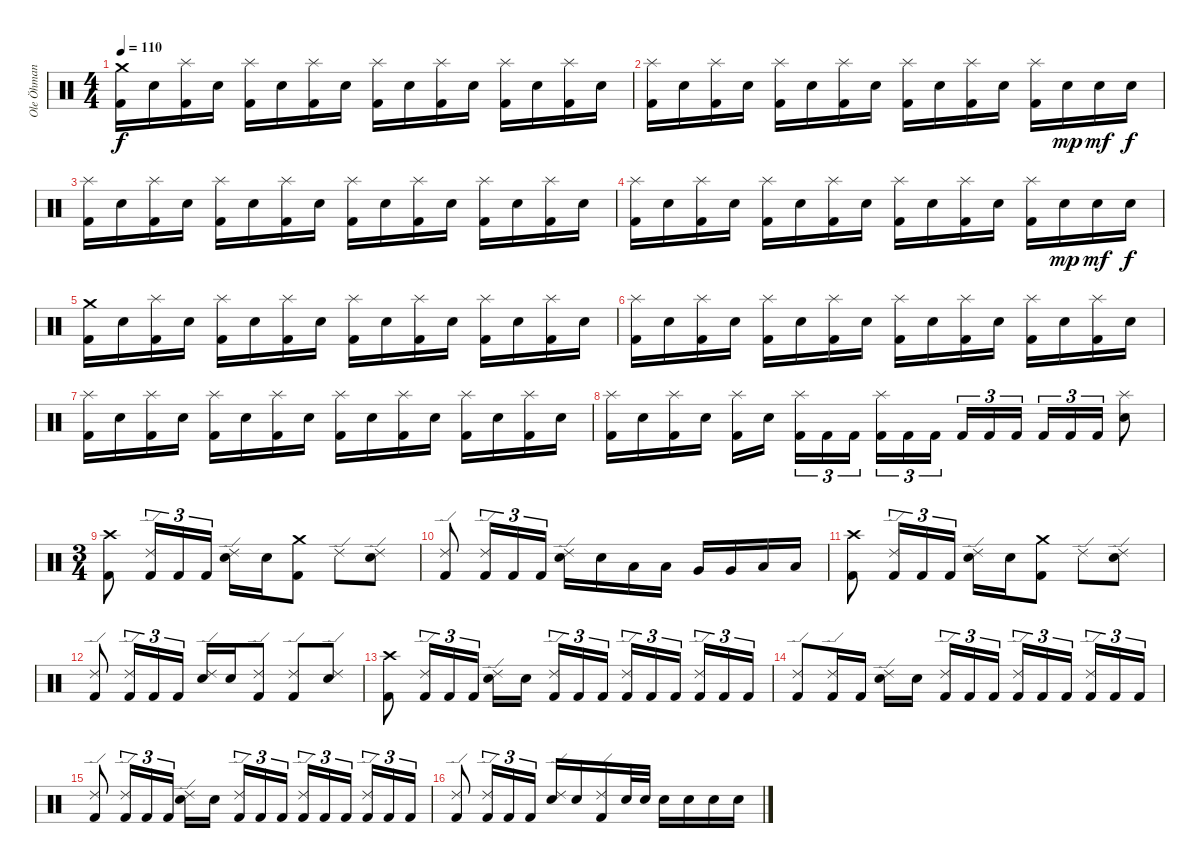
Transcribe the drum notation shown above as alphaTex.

\track ("Ole Öhman" "Ole Öhman") {instrument percussion}
\staff {score}
\articulation defaults
\ts (4 4)
\tempo 110
\clef neutral
\ks c
("Crash medium (hit)" "Kick (hit) 2").16{dy f} "Electric Snare (hit)".16 ("Splash (hit)" "Kick (hit) 2").16 "Electric Snare (hit)".16 ("Splash (hit)" "Kick (hit) 2").16 "Electric Snare (hit)".16 ("Splash (hit)" "Kick (hit) 2").16 "Electric Snare (hit)".16 ("Splash (hit)" "Kick (hit) 2").16 "Electric Snare (hit)".16 ("Splash (hit)" "Kick (hit) 2").16 "Electric Snare (hit)".16 ("Splash (hit)" "Kick (hit) 2").16 "Electric Snare (hit)".16 ("Splash (hit)" "Kick (hit) 2").16 "Electric Snare (hit)".16 |
("Splash (hit)" "Kick (hit) 2").16 "Electric Snare (hit)".16 ("Splash (hit)" "Kick (hit) 2").16 "Electric Snare (hit)".16 ("Splash (hit)" "Kick (hit) 2").16 "Electric Snare (hit)".16 ("Splash (hit)" "Kick (hit) 2").16 "Electric Snare (hit)".16 ("Splash (hit)" "Kick (hit) 2").16 "Electric Snare (hit)".16 ("Splash (hit)" "Kick (hit) 2").16 "Electric Snare (hit)".16 ("Splash (hit)" "Kick (hit) 2").16 "Electric Snare (hit)".16{dy mp} "Electric Snare (hit)".16{dy mf} "Electric Snare (hit)".16{dy f} |
("Splash (hit)" "Kick (hit) 2").16 "Electric Snare (hit)".16 ("Splash (hit)" "Kick (hit) 2").16 "Electric Snare (hit)".16 ("Splash (hit)" "Kick (hit) 2").16 "Electric Snare (hit)".16 ("Splash (hit)" "Kick (hit) 2").16 "Electric Snare (hit)".16 ("Splash (hit)" "Kick (hit) 2").16 "Electric Snare (hit)".16 ("Splash (hit)" "Kick (hit) 2").16 "Electric Snare (hit)".16 ("Splash (hit)" "Kick (hit) 2").16 "Electric Snare (hit)".16 ("Splash (hit)" "Kick (hit) 2").16 "Electric Snare (hit)".16 |
("Splash (hit)" "Kick (hit) 2").16 "Electric Snare (hit)".16 ("Splash (hit)" "Kick (hit) 2").16 "Electric Snare (hit)".16 ("Splash (hit)" "Kick (hit) 2").16 "Electric Snare (hit)".16 ("Splash (hit)" "Kick (hit) 2").16 "Electric Snare (hit)".16 ("Splash (hit)" "Kick (hit) 2").16 "Electric Snare (hit)".16 ("Splash (hit)" "Kick (hit) 2").16 "Electric Snare (hit)".16 ("Splash (hit)" "Kick (hit) 2").16 "Electric Snare (hit)".16{dy mp} "Electric Snare (hit)".16{dy mf} "Electric Snare (hit)".16{dy f} |
("Crash medium (hit)" "Kick (hit) 2").16 "Electric Snare (hit)".16 ("Splash (hit)" "Kick (hit) 2").16 "Electric Snare (hit)".16 ("Splash (hit)" "Kick (hit) 2").16 "Electric Snare (hit)".16 ("Splash (hit)" "Kick (hit) 2").16 "Electric Snare (hit)".16 ("Splash (hit)" "Kick (hit) 2").16 "Electric Snare (hit)".16 ("Splash (hit)" "Kick (hit) 2").16 "Electric Snare (hit)".16 ("Splash (hit)" "Kick (hit) 2").16 "Electric Snare (hit)".16 ("Splash (hit)" "Kick (hit) 2").16 "Electric Snare (hit)".16 |
("Splash (hit)" "Kick (hit) 2").16 "Electric Snare (hit)".16 ("Splash (hit)" "Kick (hit) 2").16 "Electric Snare (hit)".16 ("Splash (hit)" "Kick (hit) 2").16 "Electric Snare (hit)".16 ("Splash (hit)" "Kick (hit) 2").16 "Electric Snare (hit)".16 ("Splash (hit)" "Kick (hit) 2").16 "Electric Snare (hit)".16 ("Splash (hit)" "Kick (hit) 2").16 "Electric Snare (hit)".16 ("Splash (hit)" "Kick (hit) 2").16 "Electric Snare (hit)".16 ("Splash (hit)" "Kick (hit) 2").16 "Electric Snare (hit)".16 |
("Splash (hit)" "Kick (hit) 2").16 "Electric Snare (hit)".16 ("Splash (hit)" "Kick (hit) 2").16 "Electric Snare (hit)".16 ("Splash (hit)" "Kick (hit) 2").16 "Electric Snare (hit)".16 ("Splash (hit)" "Kick (hit) 2").16 "Electric Snare (hit)".16 ("Splash (hit)" "Kick (hit) 2").16 "Electric Snare (hit)".16 ("Splash (hit)" "Kick (hit) 2").16 "Electric Snare (hit)".16 ("Splash (hit)" "Kick (hit) 2").16 "Electric Snare (hit)".16 ("Splash (hit)" "Kick (hit) 2").16 "Electric Snare (hit)".16 |
("Splash (hit)" "Kick (hit) 2").16 "Electric Snare (hit)".16 ("Splash (hit)" "Kick (hit) 2").16 "Electric Snare (hit)".16 ("Splash (hit)" "Kick (hit) 2").16 "Electric Snare (hit)".16 ("Splash (hit)" "Kick (hit) 2").16{tu (3 2)} "Kick (hit) 2".16{tu (3 2)} "Kick (hit) 2".16{tu (3 2)} ("Splash (hit)" "Kick (hit) 2").16{tu (3 2)} "Kick (hit) 2".16{tu (3 2)} "Kick (hit) 2".16{tu (3 2)} "Kick (hit) 2".16{tu (3 2)} "Kick (hit) 2".16{tu (3 2)} "Kick (hit) 2".16{tu (3 2)} "Kick (hit) 2".16{tu (3 2)} "Kick (hit) 2".16{tu (3 2)} "Kick (hit) 2".16{tu (3 2)} ("Splash (hit)" "Electric Snare (hit)").8 |
\ts (3 4)
("Crash high (hit)" "Kick (hit) 2").8 ("Ride (edge) 2" "Kick (hit) 2").16{tu (3 2)} "Kick (hit) 2".16{tu (3 2)} "Kick (hit) 2".16{tu (3 2)} ("Ride (edge) 2" "Electric Snare (hit)").16 "Electric Snare (hit)".16 ("Crash medium (hit)" "Kick (hit) 2").8 "Ride (edge) 2".8 ("Ride (edge) 2" "Electric Snare (hit)").8 |
("Ride (edge) 2" "Kick (hit) 2").8 ("Ride (edge) 2" "Kick (hit) 2").16{tu (3 2)} "Kick (hit) 2".16{tu (3 2)} "Kick (hit) 2".16{tu (3 2)} ("Ride (edge) 2" "Electric Snare (hit)").16 "Electric Snare (hit)".16 "Low Tom (hit)".16 "Low Tom (hit)".16 "Very Low Tom (hit)".16 "Very Low Tom (hit)".16 "Low Floor Tom (hit)".16 "Low Floor Tom (hit)".16 |
("Crash high (hit)" "Kick (hit) 2").8 ("Ride (edge) 2" "Kick (hit) 2").16{tu (3 2)} "Kick (hit) 2".16{tu (3 2)} "Kick (hit) 2".16{tu (3 2)} ("Ride (edge) 2" "Electric Snare (hit)").16 "Electric Snare (hit)".16 ("Crash medium (hit)" "Kick (hit) 2").8 "Ride (edge) 2".8 ("Ride (edge) 2" "Electric Snare (hit)").8 |
("Ride (edge) 2" "Kick (hit) 2").8 ("Ride (edge) 2" "Kick (hit) 2").16{tu (3 2)} "Kick (hit) 2".16{tu (3 2)} "Kick (hit) 2".16{tu (3 2)} ("Ride (edge) 2" "Electric Snare (hit)").16 "Electric Snare (hit)".16 ("Ride (edge) 2" "Kick (hit) 2").8 ("Ride (edge) 2" "Kick (hit) 2").8 ("Ride (edge) 2" "Electric Snare (hit)").8 |
("Crash high (hit)" "Kick (hit) 2").8 ("Ride (edge) 2" "Kick (hit) 2").16{tu (3 2)} "Kick (hit) 2".16{tu (3 2)} "Kick (hit) 2".16{tu (3 2)} ("Ride (edge) 2" "Electric Snare (hit)").16 "Electric Snare (hit)".16 ("Ride (edge) 2" "Kick (hit) 2").16{tu (3 2)} "Kick (hit) 2".16{tu (3 2)} "Kick (hit) 2".16{tu (3 2)} ("Ride (edge) 2" "Kick (hit) 2").16{tu (3 2)} "Kick (hit) 2".16{tu (3 2)} "Kick (hit) 2".16{tu (3 2)} ("Ride (edge) 2" "Kick (hit) 2").16{tu (3 2)} "Kick (hit) 2".16{tu (3 2)} "Kick (hit) 2".16{tu (3 2)} |
("Ride (edge) 2" "Kick (hit) 2").8 ("Ride (edge) 2" "Kick (hit) 2").16 "Kick (hit) 2".16 ("Ride (edge) 2" "Electric Snare (hit)").16 "Electric Snare (hit)".16 ("Ride (edge) 2" "Kick (hit) 2").16{tu (3 2)} "Kick (hit) 2".16{tu (3 2)} "Kick (hit) 2".16{tu (3 2)} ("Ride (edge) 2" "Kick (hit) 2").16{tu (3 2)} "Kick (hit) 2".16{tu (3 2)} "Kick (hit) 2".16{tu (3 2)} ("Ride (edge) 2" "Kick (hit) 2").16{tu (3 2)} "Kick (hit) 2".16{tu (3 2)} "Kick (hit) 2".16{tu (3 2)} |
("Ride (edge) 2" "Kick (hit) 2").8 ("Ride (edge) 2" "Kick (hit) 2").16{tu (3 2)} "Kick (hit) 2".16{tu (3 2)} "Kick (hit) 2".16{tu (3 2)} ("Ride (edge) 2" "Electric Snare (hit)").16 "Electric Snare (hit)".16 ("Ride (edge) 2" "Kick (hit) 2").16{tu (3 2)} "Kick (hit) 2".16{tu (3 2)} "Kick (hit) 2".16{tu (3 2)} ("Ride (edge) 2" "Kick (hit) 2").16{tu (3 2)} "Kick (hit) 2".16{tu (3 2)} "Kick (hit) 2".16{tu (3 2)} ("Ride (edge) 2" "Kick (hit) 2").16{tu (3 2)} "Kick (hit) 2".16{tu (3 2)} "Kick (hit) 2".16{tu (3 2)} |
("Ride (edge) 2" "Kick (hit) 2").8 ("Ride (edge) 2" "Kick (hit) 2").16{tu (3 2)} "Kick (hit) 2".16{tu (3 2)} "Kick (hit) 2".16{tu (3 2)} ("Ride (edge) 2" "Electric Snare (hit)").16 "Electric Snare (hit)".16 ("Ride (edge) 2" "Kick (hit) 2").16 "Electric Snare (hit)".32 "Electric Snare (hit)".32 "Electric Snare (hit)".16 "Electric Snare (hit)".16 "Electric Snare (hit)".16 "Electric Snare (hit)".16
